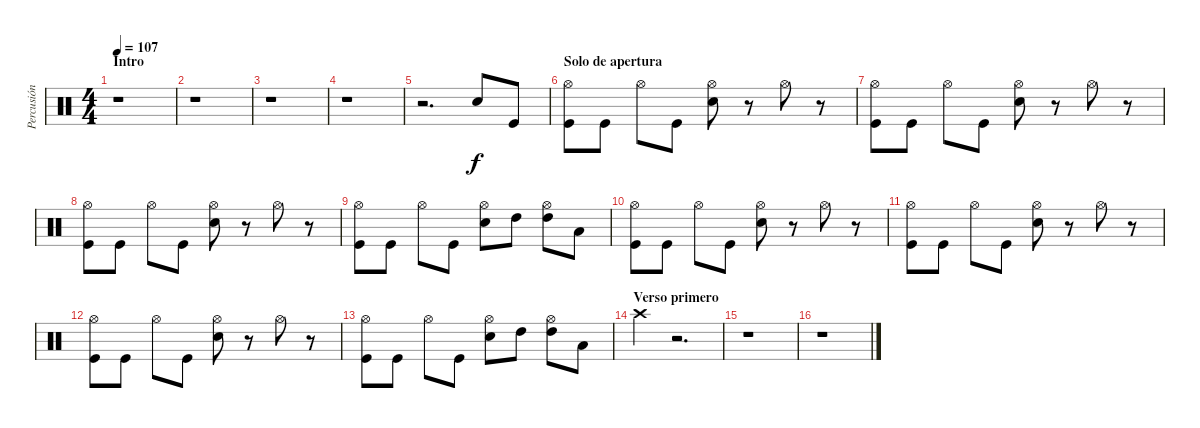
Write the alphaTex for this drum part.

\track ("Percusión" "Percusión") {instrument percussion}
\staff {score}
\articulation defaults
\ts (4 4)
\section ("" "Intro")
\tempo 107
\clef neutral
\ks c
r.1{dy f} |
r.1 |
r.1 |
r.1 |
r.2{d} "Snare (hit) 2".8 "Kick (hit)".8 |
\section ("" "Solo de apertura")
("Hi-Hat (open)" "Kick (hit)").8 "Kick (hit)".8 "Hi-Hat (open)".8 "Kick (hit)".8 ("Hi-Hat (open)" "Snare (hit) 2").8 r.8 "Hi-Hat (open)".8 r.8 |
("Hi-Hat (open)" "Kick (hit)").8 "Kick (hit)".8 "Hi-Hat (open)".8 "Kick (hit)".8 ("Hi-Hat (open)" "Snare (hit) 2").8 r.8 "Hi-Hat (open)".8 r.8 |
("Hi-Hat (open)" "Kick (hit)").8 "Kick (hit)".8 "Hi-Hat (open)".8 "Kick (hit)".8 ("Hi-Hat (open)" "Snare (hit) 2").8 r.8 "Hi-Hat (open)".8 r.8 |
("Hi-Hat (open)" "Kick (hit)").8 "Kick (hit)".8 "Hi-Hat (open)".8 "Kick (hit)".8 ("Hi-Hat (open)" "Snare (hit) 2").8 "High Tom (hit)".8 ("Hi-Hat (open)" "High Tom (hit)").8 "Low Tom (hit)".8 |
("Hi-Hat (open)" "Kick (hit)").8 "Kick (hit)".8 "Hi-Hat (open)".8 "Kick (hit)".8 ("Hi-Hat (open)" "Snare (hit) 2").8 r.8 "Hi-Hat (open)".8 r.8 |
("Hi-Hat (open)" "Kick (hit)").8 "Kick (hit)".8 "Hi-Hat (open)".8 "Kick (hit)".8 ("Hi-Hat (open)" "Snare (hit) 2").8 r.8 "Hi-Hat (open)".8 r.8 |
("Hi-Hat (open)" "Kick (hit)").8 "Kick (hit)".8 "Hi-Hat (open)".8 "Kick (hit)".8 ("Hi-Hat (open)" "Snare (hit) 2").8 r.8 "Hi-Hat (open)".8 r.8 |
("Hi-Hat (open)" "Kick (hit)").8 "Kick (hit)".8 "Hi-Hat (open)".8 "Kick (hit)".8 ("Hi-Hat (open)" "Snare (hit) 2").8 "High Tom (hit)".8 ("Hi-Hat (open)" "High Tom (hit)").8 "Low Tom (hit)".8 |
\section ("" "Verso primero")
"Crash high (hit)".4 r.2{d} |
r.1 |
r.1
